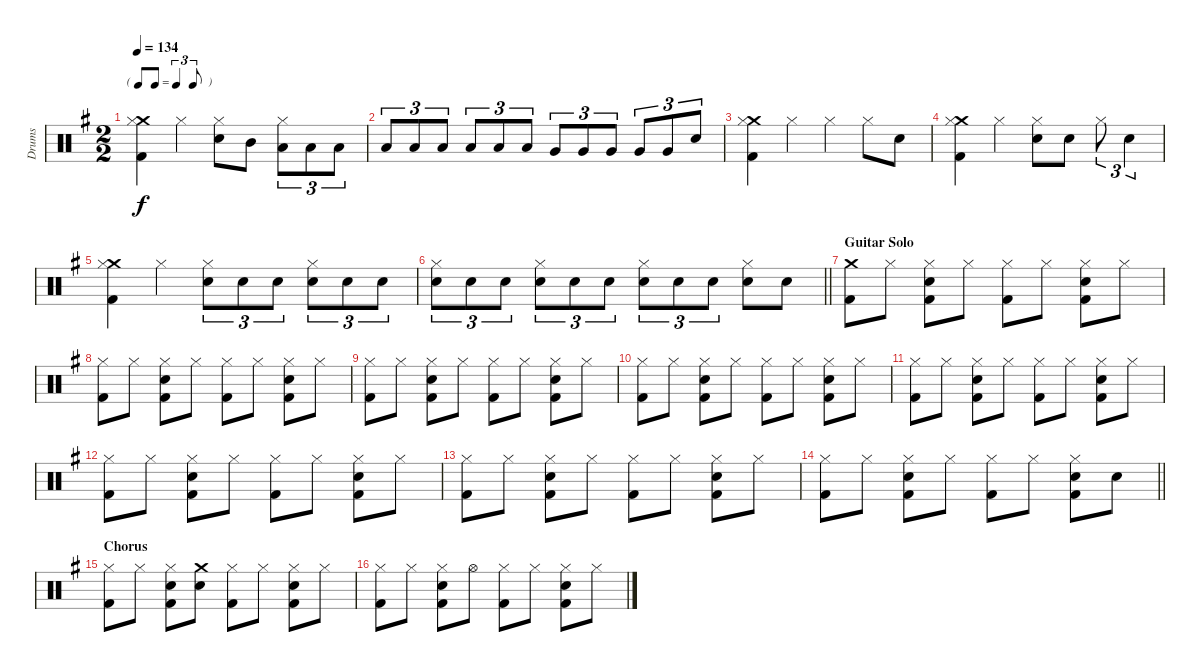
\track ("Drums" "Drums") {instrument percussion}
\staff {score}
\articulation defaults
\ts (2 2)
\tf triplet8th
\tempo 134
\clef neutral
\ks g
("Crash medium (hit)" "Hi-Hat (closed)" "Kick (hit) 2").4{dy f} "Hi-Hat (closed)".4 ("Hi-Hat (closed)" "Snare (hit) 2").8 "Mid Tom (hit)".8 ("Hi-Hat (closed)" "Low Tom (hit)").8{tu (3 2)} "Low Tom (hit)".8{tu (3 2)} "Low Tom (hit)".8{tu (3 2)} |
"Low Tom (hit)".8{tu (3 2)} "Low Tom (hit)".8{tu (3 2)} "Low Tom (hit)".8{tu (3 2)} "Low Tom (hit)".8{tu (3 2)} "Low Tom (hit)".8{tu (3 2)} "Low Tom (hit)".8{tu (3 2)} "Very Low Tom (hit)".8{tu (3 2)} "Very Low Tom (hit)".8{tu (3 2)} "Very Low Tom (hit)".8{tu (3 2)} "Very Low Tom (hit)".8{tu (3 2)} "Very Low Tom (hit)".8{tu (3 2)} "Snare (hit) 2".8{tu (3 2)} |
("Crash medium (hit)" "Hi-Hat (closed)" "Kick (hit) 2").4 "Hi-Hat (closed)".4 "Hi-Hat (closed)".4 "Hi-Hat (closed)".8 "Snare (hit) 2".8 |
("Crash medium (hit)" "Hi-Hat (closed)" "Kick (hit) 2").4 "Hi-Hat (closed)".4 ("Hi-Hat (closed)" "Snare (hit) 2").8 "Snare (hit) 2".8 "Hi-Hat (closed)".8{tu (3 2)} "Snare (hit) 2".4{tu (3 2)} |
("Crash medium (hit)" "Hi-Hat (closed)" "Kick (hit) 2").4 "Hi-Hat (closed)".4 ("Hi-Hat (closed)" "Snare (hit) 2").8{tu (3 2)} "Snare (hit) 2".8{tu (3 2)} "Snare (hit) 2".8{tu (3 2)} ("Hi-Hat (closed)" "Snare (hit) 2").8{tu (3 2)} "Snare (hit) 2".8{tu (3 2)} "Snare (hit) 2".8{tu (3 2)} |
\barLineRight lightlight
("Hi-Hat (closed)" "Snare (hit) 2").8{tu (3 2)} "Snare (hit) 2".8{tu (3 2)} "Snare (hit) 2".8{tu (3 2)} ("Hi-Hat (closed)" "Snare (hit) 2").8{tu (3 2)} "Snare (hit) 2".8{tu (3 2)} "Snare (hit) 2".8{tu (3 2)} ("Hi-Hat (closed)" "Snare (hit) 2").8{tu (3 2)} "Snare (hit) 2".8{tu (3 2)} "Snare (hit) 2".8{tu (3 2)} ("Hi-Hat (closed)" "Snare (hit) 2").8 "Snare (hit) 2".8 |
\section ("" "Guitar Solo")
("Crash medium (hit)" "Kick (hit) 2").8 "Hi-Hat (closed)".8 ("Hi-Hat (closed)" "Snare (hit) 2" "Kick (hit) 2").8 "Hi-Hat (closed)".8 ("Hi-Hat (closed)" "Kick (hit) 2").8 "Hi-Hat (closed)".8 ("Hi-Hat (closed)" "Snare (hit) 2" "Kick (hit) 2").8 "Hi-Hat (closed)".8 |
("Hi-Hat (closed)" "Kick (hit) 2").8 "Hi-Hat (closed)".8 ("Hi-Hat (closed)" "Snare (hit) 2" "Kick (hit) 2").8 "Hi-Hat (closed)".8 ("Hi-Hat (closed)" "Kick (hit) 2").8 "Hi-Hat (closed)".8 ("Hi-Hat (closed)" "Snare (hit) 2" "Kick (hit) 2").8 "Hi-Hat (closed)".8 |
("Hi-Hat (closed)" "Kick (hit) 2").8 "Hi-Hat (closed)".8 ("Hi-Hat (closed)" "Snare (hit) 2" "Kick (hit) 2").8 "Hi-Hat (closed)".8 ("Hi-Hat (closed)" "Kick (hit) 2").8 "Hi-Hat (closed)".8 ("Hi-Hat (closed)" "Snare (hit) 2" "Kick (hit) 2").8 "Hi-Hat (closed)".8 |
("Hi-Hat (closed)" "Kick (hit) 2").8 "Hi-Hat (closed)".8 ("Hi-Hat (closed)" "Snare (hit) 2" "Kick (hit) 2").8 "Hi-Hat (closed)".8 ("Hi-Hat (closed)" "Kick (hit) 2").8 "Hi-Hat (closed)".8 ("Hi-Hat (closed)" "Snare (hit) 2" "Kick (hit) 2").8 "Hi-Hat (closed)".8 |
("Hi-Hat (closed)" "Kick (hit) 2").8 "Hi-Hat (closed)".8 ("Hi-Hat (closed)" "Snare (hit) 2" "Kick (hit) 2").8 "Hi-Hat (closed)".8 ("Hi-Hat (closed)" "Kick (hit) 2").8 "Hi-Hat (closed)".8 ("Hi-Hat (closed)" "Snare (hit) 2" "Kick (hit) 2").8 "Hi-Hat (closed)".8 |
("Hi-Hat (closed)" "Kick (hit) 2").8 "Hi-Hat (closed)".8 ("Hi-Hat (closed)" "Snare (hit) 2" "Kick (hit) 2").8 "Hi-Hat (closed)".8 ("Hi-Hat (closed)" "Kick (hit) 2").8 "Hi-Hat (closed)".8 ("Hi-Hat (closed)" "Snare (hit) 2" "Kick (hit) 2").8 "Hi-Hat (closed)".8 |
("Hi-Hat (closed)" "Kick (hit) 2").8 "Hi-Hat (closed)".8 ("Hi-Hat (closed)" "Snare (hit) 2" "Kick (hit) 2").8 "Hi-Hat (closed)".8 ("Hi-Hat (closed)" "Kick (hit) 2").8 "Hi-Hat (closed)".8 ("Hi-Hat (closed)" "Snare (hit) 2" "Kick (hit) 2").8 "Hi-Hat (closed)".8 |
\barLineRight lightlight
("Hi-Hat (closed)" "Kick (hit) 2").8 "Hi-Hat (closed)".8 ("Hi-Hat (closed)" "Snare (hit) 2" "Kick (hit) 2").8 "Hi-Hat (closed)".8 ("Hi-Hat (closed)" "Kick (hit) 2").8 "Hi-Hat (closed)".8 ("Hi-Hat (closed)" "Snare (hit) 2" "Kick (hit) 2").8 "Snare (hit) 2".8 |
\section ("" "Chorus")
("Hi-Hat (closed)" "Kick (hit) 2").8 "Hi-Hat (closed)".8 ("Hi-Hat (closed)" "Snare (hit) 2" "Kick (hit) 2").8 ("Crash medium (hit)" "Snare (hit) 2").8 ("Hi-Hat (closed)" "Kick (hit) 2").8 "Hi-Hat (closed)".8 ("Hi-Hat (closed)" "Snare (hit) 2" "Kick (hit) 2").8 "Hi-Hat (closed)".8 |
("Hi-Hat (closed)" "Kick (hit) 2").8 "Hi-Hat (closed)".8 ("Hi-Hat (closed)" "Snare (hit) 2" "Kick (hit) 2").8 "Hi-Hat (open)".8 ("Hi-Hat (closed)" "Kick (hit) 2").8 "Hi-Hat (closed)".8 ("Hi-Hat (closed)" "Snare (hit) 2" "Kick (hit) 2").8 "Hi-Hat (closed)".8
